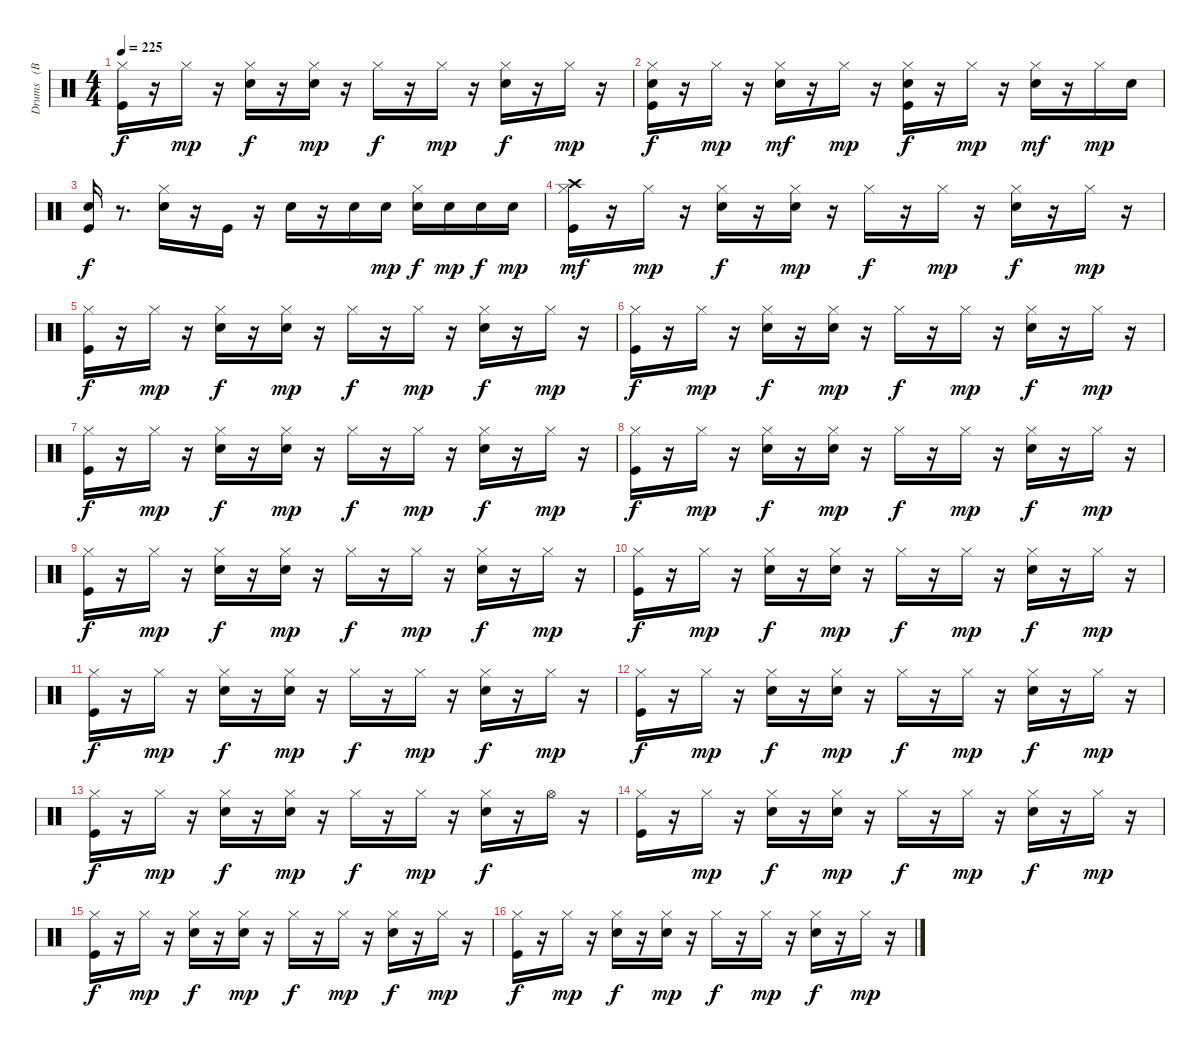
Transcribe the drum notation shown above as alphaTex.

\track ("Drums   (BB)" "Drums   (B") {instrument percussion}
\staff {score}
\articulation defaults
\ts (4 4)
\tempo 225
\clef neutral
\ks c
("Kick (hit)" "Hi-Hat (closed)").16{dy f} r.16 "Hi-Hat (closed)".16{dy mp} r.16 ("Snare (hit) 2" "Hi-Hat (closed)").16{dy f} r.16 ("Snare (hit) 2" "Hi-Hat (closed)").16{dy mp} r.16 "Hi-Hat (closed)".16{dy f} r.16 "Hi-Hat (closed)".16{dy mp} r.16 ("Snare (hit) 2" "Hi-Hat (closed)").16{dy f} r.16 "Hi-Hat (closed)".16{dy mp} r.16 |
("Kick (hit)" "Snare (hit) 2" "Hi-Hat (closed)").16{dy f} r.16 "Hi-Hat (closed)".16{dy mp} r.16 ("Snare (hit) 2" "Hi-Hat (closed)").16{dy mf} r.16 "Hi-Hat (closed)".16{dy mp} r.16 ("Kick (hit)" "Snare (hit) 2" "Hi-Hat (closed)").16{dy f} r.16 "Hi-Hat (closed)".16{dy mp} r.16 ("Snare (hit) 2" "Hi-Hat (closed)").16{dy mf} r.16 "Hi-Hat (closed)".16{dy mp} "Snare (hit) 2".16 |
("Kick (hit)" "Snare (hit) 2").16{dy f} r.8{d} ("Snare (hit) 2" "Hi-Hat (closed)").16 r.16 "Kick (hit)".16 r.16 "Snare (hit) 2".16 r.16 "Snare (hit) 2".16 "Snare (hit) 2".16{dy mp} ("Snare (hit) 2" "Hi-Hat (closed)").16{dy f} "Snare (hit) 2".16{dy mp} "Snare (hit) 2".16{dy f} "Snare (hit) 2".16{dy mp} |
("Kick (hit)" "Hi-Hat (closed)" "Crash high (hit)").16{dy mf} r.16 "Hi-Hat (closed)".16{dy mp} r.16 ("Snare (hit) 2" "Hi-Hat (closed)").16{dy f} r.16 ("Snare (hit) 2" "Hi-Hat (closed)").16{dy mp} r.16 "Hi-Hat (closed)".16{dy f} r.16 "Hi-Hat (closed)".16{dy mp} r.16 ("Snare (hit) 2" "Hi-Hat (closed)").16{dy f} r.16 "Hi-Hat (closed)".16{dy mp} r.16 |
("Kick (hit)" "Hi-Hat (closed)").16{dy f} r.16 "Hi-Hat (closed)".16{dy mp} r.16 ("Snare (hit) 2" "Hi-Hat (closed)").16{dy f} r.16 ("Snare (hit) 2" "Hi-Hat (closed)").16{dy mp} r.16 "Hi-Hat (closed)".16{dy f} r.16 "Hi-Hat (closed)".16{dy mp} r.16 ("Snare (hit) 2" "Hi-Hat (closed)").16{dy f} r.16 "Hi-Hat (closed)".16{dy mp} r.16 |
("Kick (hit)" "Hi-Hat (closed)").16{dy f} r.16 "Hi-Hat (closed)".16{dy mp} r.16 ("Snare (hit) 2" "Hi-Hat (closed)").16{dy f} r.16 ("Snare (hit) 2" "Hi-Hat (closed)").16{dy mp} r.16 "Hi-Hat (closed)".16{dy f} r.16 "Hi-Hat (closed)".16{dy mp} r.16 ("Snare (hit) 2" "Hi-Hat (closed)").16{dy f} r.16 "Hi-Hat (closed)".16{dy mp} r.16 |
("Kick (hit)" "Hi-Hat (closed)").16{dy f} r.16 "Hi-Hat (closed)".16{dy mp} r.16 ("Snare (hit) 2" "Hi-Hat (closed)").16{dy f} r.16 ("Snare (hit) 2" "Hi-Hat (closed)").16{dy mp} r.16 "Hi-Hat (closed)".16{dy f} r.16 "Hi-Hat (closed)".16{dy mp} r.16 ("Snare (hit) 2" "Hi-Hat (closed)").16{dy f} r.16 "Hi-Hat (closed)".16{dy mp} r.16 |
("Kick (hit)" "Hi-Hat (closed)").16{dy f} r.16 "Hi-Hat (closed)".16{dy mp} r.16 ("Snare (hit) 2" "Hi-Hat (closed)").16{dy f} r.16 ("Snare (hit) 2" "Hi-Hat (closed)").16{dy mp} r.16 "Hi-Hat (closed)".16{dy f} r.16 "Hi-Hat (closed)".16{dy mp} r.16 ("Snare (hit) 2" "Hi-Hat (closed)").16{dy f} r.16 "Hi-Hat (closed)".16{dy mp} r.16 |
("Kick (hit)" "Hi-Hat (closed)").16{dy f} r.16 "Hi-Hat (closed)".16{dy mp} r.16 ("Snare (hit) 2" "Hi-Hat (closed)").16{dy f} r.16 ("Snare (hit) 2" "Hi-Hat (closed)").16{dy mp} r.16 "Hi-Hat (closed)".16{dy f} r.16 "Hi-Hat (closed)".16{dy mp} r.16 ("Snare (hit) 2" "Hi-Hat (closed)").16{dy f} r.16 "Hi-Hat (closed)".16{dy mp} r.16 |
("Kick (hit)" "Hi-Hat (closed)").16{dy f} r.16 "Hi-Hat (closed)".16{dy mp} r.16 ("Snare (hit) 2" "Hi-Hat (closed)").16{dy f} r.16 ("Snare (hit) 2" "Hi-Hat (closed)").16{dy mp} r.16 "Hi-Hat (closed)".16{dy f} r.16 "Hi-Hat (closed)".16{dy mp} r.16 ("Snare (hit) 2" "Hi-Hat (closed)").16{dy f} r.16 "Hi-Hat (closed)".16{dy mp} r.16 |
("Kick (hit)" "Hi-Hat (closed)").16{dy f} r.16 "Hi-Hat (closed)".16{dy mp} r.16 ("Snare (hit) 2" "Hi-Hat (closed)").16{dy f} r.16 ("Snare (hit) 2" "Hi-Hat (closed)").16{dy mp} r.16 "Hi-Hat (closed)".16{dy f} r.16 "Hi-Hat (closed)".16{dy mp} r.16 ("Snare (hit) 2" "Hi-Hat (closed)").16{dy f} r.16 "Hi-Hat (closed)".16{dy mp} r.16 |
("Kick (hit)" "Hi-Hat (closed)").16{dy f} r.16 "Hi-Hat (closed)".16{dy mp} r.16 ("Snare (hit) 2" "Hi-Hat (closed)").16{dy f} r.16 ("Snare (hit) 2" "Hi-Hat (closed)").16{dy mp} r.16 "Hi-Hat (closed)".16{dy f} r.16 "Hi-Hat (closed)".16{dy mp} r.16 ("Snare (hit) 2" "Hi-Hat (closed)").16{dy f} r.16 "Hi-Hat (closed)".16{dy mp} r.16 |
("Kick (hit)" "Hi-Hat (closed)").16{dy f} r.16 "Hi-Hat (closed)".16{dy mp} r.16 ("Snare (hit) 2" "Hi-Hat (closed)").16{dy f} r.16 ("Snare (hit) 2" "Hi-Hat (closed)").16{dy mp} r.16 "Hi-Hat (closed)".16{dy f} r.16 "Hi-Hat (closed)".16{dy mp} r.16 ("Snare (hit) 2" "Hi-Hat (closed)").16{dy f} r.16 "Hi-Hat (open)".16 r.16 |
("Kick (hit)" "Hi-Hat (closed)").16 r.16 "Hi-Hat (closed)".16{dy mp} r.16 ("Snare (hit) 2" "Hi-Hat (closed)").16{dy f} r.16 ("Snare (hit) 2" "Hi-Hat (closed)").16{dy mp} r.16 "Hi-Hat (closed)".16{dy f} r.16 "Hi-Hat (closed)".16{dy mp} r.16 ("Snare (hit) 2" "Hi-Hat (closed)").16{dy f} r.16 "Hi-Hat (closed)".16{dy mp} r.16 |
("Kick (hit)" "Hi-Hat (closed)").16{dy f} r.16 "Hi-Hat (closed)".16{dy mp} r.16 ("Snare (hit) 2" "Hi-Hat (closed)").16{dy f} r.16 ("Snare (hit) 2" "Hi-Hat (closed)").16{dy mp} r.16 "Hi-Hat (closed)".16{dy f} r.16 "Hi-Hat (closed)".16{dy mp} r.16 ("Snare (hit) 2" "Hi-Hat (closed)").16{dy f} r.16 "Hi-Hat (closed)".16{dy mp} r.16 |
("Kick (hit)" "Hi-Hat (closed)").16{dy f} r.16 "Hi-Hat (closed)".16{dy mp} r.16 ("Snare (hit) 2" "Hi-Hat (closed)").16{dy f} r.16 ("Snare (hit) 2" "Hi-Hat (closed)").16{dy mp} r.16 "Hi-Hat (closed)".16{dy f} r.16 "Hi-Hat (closed)".16{dy mp} r.16 ("Snare (hit) 2" "Hi-Hat (closed)").16{dy f} r.16 "Hi-Hat (closed)".16{dy mp} r.16
